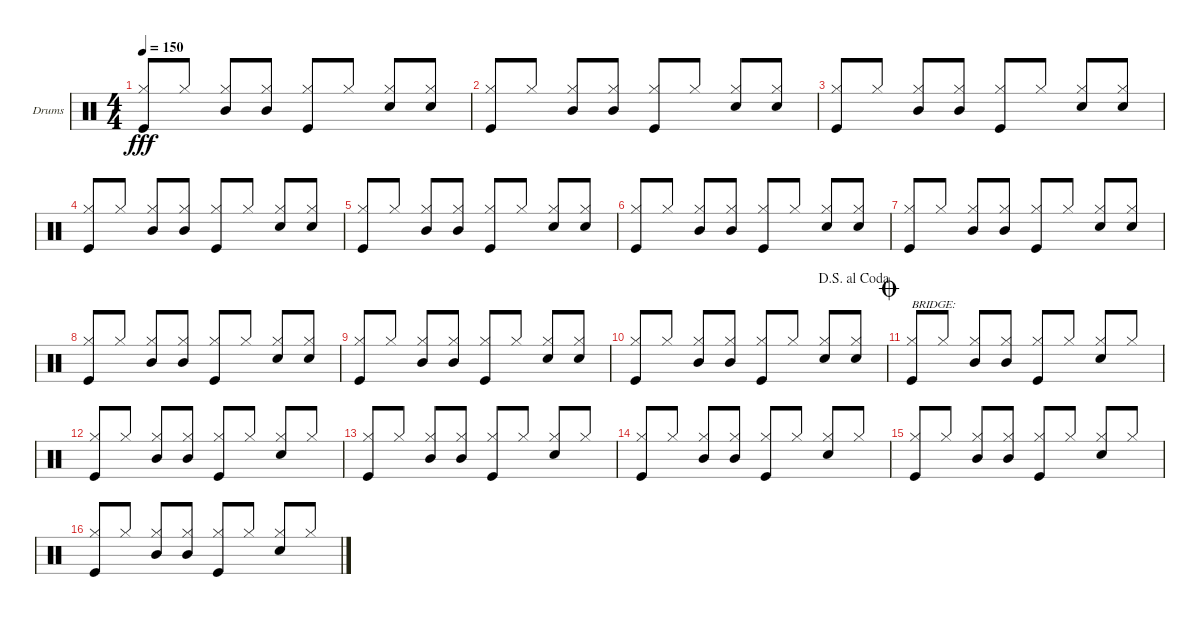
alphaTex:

\defaultSystemsLayout 4
\bracketExtendMode groupsimilarinstruments
\firstSystemTrackNameOrientation horizontal
\otherSystemsTrackNameOrientation horizontal
\track ("Drumkit" "Drums") {instrument percussion}
\staff {score}
\articulation defaults
\ts (4 4)
\tempo 150
\clef neutral
\ks c
("Kick (hit)" "Hi-Hat (closed)").8{dy fff beam invert} "Hi-Hat (closed)".8 ("Mid Tom (hit)" "Hi-Hat (closed)").8{beam invert} ("Mid Tom (hit)" "Hi-Hat (closed)").8 ("Hi-Hat (closed)" "Kick (hit)").8{beam invert} "Hi-Hat (closed)".8 ("Snare (hit) 2" "Hi-Hat (closed)").8{beam invert} ("Snare (hit) 2" "Hi-Hat (closed)").8 |
("Kick (hit)" "Hi-Hat (closed)").8{beam invert} "Hi-Hat (closed)".8 ("Mid Tom (hit)" "Hi-Hat (closed)").8{beam invert} ("Mid Tom (hit)" "Hi-Hat (closed)").8 ("Hi-Hat (closed)" "Kick (hit)").8{beam invert} "Hi-Hat (closed)".8 ("Snare (hit) 2" "Hi-Hat (closed)").8{beam invert} ("Snare (hit) 2" "Hi-Hat (closed)").8 |
("Kick (hit)" "Hi-Hat (closed)").8{beam invert} "Hi-Hat (closed)".8 ("Mid Tom (hit)" "Hi-Hat (closed)").8{beam invert} ("Mid Tom (hit)" "Hi-Hat (closed)").8 ("Hi-Hat (closed)" "Kick (hit)").8{beam invert} "Hi-Hat (closed)".8 ("Snare (hit) 2" "Hi-Hat (closed)").8{beam invert} ("Snare (hit) 2" "Hi-Hat (closed)").8 |
("Kick (hit)" "Hi-Hat (closed)").8{beam invert} "Hi-Hat (closed)".8 ("Mid Tom (hit)" "Hi-Hat (closed)").8{beam invert} ("Mid Tom (hit)" "Hi-Hat (closed)").8 ("Hi-Hat (closed)" "Kick (hit)").8{beam invert} "Hi-Hat (closed)".8 ("Snare (hit) 2" "Hi-Hat (closed)").8{beam invert} ("Snare (hit) 2" "Hi-Hat (closed)").8 |
("Kick (hit)" "Hi-Hat (closed)").8{beam invert} "Hi-Hat (closed)".8 ("Mid Tom (hit)" "Hi-Hat (closed)").8{beam invert} ("Mid Tom (hit)" "Hi-Hat (closed)").8 ("Hi-Hat (closed)" "Kick (hit)").8{beam invert} "Hi-Hat (closed)".8 ("Snare (hit) 2" "Hi-Hat (closed)").8{beam invert} ("Snare (hit) 2" "Hi-Hat (closed)").8 |
("Kick (hit)" "Hi-Hat (closed)").8{beam invert} "Hi-Hat (closed)".8 ("Mid Tom (hit)" "Hi-Hat (closed)").8{beam invert} ("Mid Tom (hit)" "Hi-Hat (closed)").8 ("Hi-Hat (closed)" "Kick (hit)").8{beam invert} "Hi-Hat (closed)".8 ("Snare (hit) 2" "Hi-Hat (closed)").8{beam invert} ("Snare (hit) 2" "Hi-Hat (closed)").8 |
("Kick (hit)" "Hi-Hat (closed)").8{beam invert} "Hi-Hat (closed)".8 ("Mid Tom (hit)" "Hi-Hat (closed)").8{beam invert} ("Mid Tom (hit)" "Hi-Hat (closed)").8 ("Hi-Hat (closed)" "Kick (hit)").8{beam invert} "Hi-Hat (closed)".8 ("Snare (hit) 2" "Hi-Hat (closed)").8{beam invert} ("Snare (hit) 2" "Hi-Hat (closed)").8 |
("Kick (hit)" "Hi-Hat (closed)").8{beam invert} "Hi-Hat (closed)".8 ("Mid Tom (hit)" "Hi-Hat (closed)").8{beam invert} ("Mid Tom (hit)" "Hi-Hat (closed)").8 ("Hi-Hat (closed)" "Kick (hit)").8{beam invert} "Hi-Hat (closed)".8 ("Snare (hit) 2" "Hi-Hat (closed)").8{beam invert} ("Snare (hit) 2" "Hi-Hat (closed)").8 |
("Kick (hit)" "Hi-Hat (closed)").8{beam invert} "Hi-Hat (closed)".8 ("Mid Tom (hit)" "Hi-Hat (closed)").8{beam invert} ("Mid Tom (hit)" "Hi-Hat (closed)").8 ("Hi-Hat (closed)" "Kick (hit)").8{beam invert} "Hi-Hat (closed)".8 ("Snare (hit) 2" "Hi-Hat (closed)").8{beam invert} ("Snare (hit) 2" "Hi-Hat (closed)").8 |
\jump dalsegnoalcoda
("Kick (hit)" "Hi-Hat (closed)").8{beam invert} "Hi-Hat (closed)".8 ("Mid Tom (hit)" "Hi-Hat (closed)").8{beam invert} ("Mid Tom (hit)" "Hi-Hat (closed)").8 ("Hi-Hat (closed)" "Kick (hit)").8{beam invert} "Hi-Hat (closed)".8 ("Snare (hit) 2" "Hi-Hat (closed)").8{beam invert} ("Snare (hit) 2" "Hi-Hat (closed)").8 |
\jump coda
("Kick (hit)" "Hi-Hat (closed)").8{txt "BRIDGE:" beam invert} "Hi-Hat (closed)".8 ("Mid Tom (hit)" "Hi-Hat (closed)").8{beam invert} ("Mid Tom (hit)" "Hi-Hat (closed)").8 ("Hi-Hat (closed)" "Kick (hit)").8{beam invert} "Hi-Hat (closed)".8 ("Snare (hit) 2" "Hi-Hat (closed)").8{beam invert} "Hi-Hat (closed)".8 |
("Kick (hit)" "Hi-Hat (closed)").8{beam invert} "Hi-Hat (closed)".8 ("Mid Tom (hit)" "Hi-Hat (closed)").8{beam invert} ("Mid Tom (hit)" "Hi-Hat (closed)").8 ("Hi-Hat (closed)" "Kick (hit)").8{beam invert} "Hi-Hat (closed)".8 ("Snare (hit) 2" "Hi-Hat (closed)").8{beam invert} "Hi-Hat (closed)".8 |
("Kick (hit)" "Hi-Hat (closed)").8{beam invert} "Hi-Hat (closed)".8 ("Mid Tom (hit)" "Hi-Hat (closed)").8{beam invert} ("Mid Tom (hit)" "Hi-Hat (closed)").8 ("Hi-Hat (closed)" "Kick (hit)").8{beam invert} "Hi-Hat (closed)".8 ("Snare (hit) 2" "Hi-Hat (closed)").8{beam invert} "Hi-Hat (closed)".8 |
("Kick (hit)" "Hi-Hat (closed)").8{beam invert} "Hi-Hat (closed)".8 ("Mid Tom (hit)" "Hi-Hat (closed)").8{beam invert} ("Mid Tom (hit)" "Hi-Hat (closed)").8 ("Hi-Hat (closed)" "Kick (hit)").8{beam invert} "Hi-Hat (closed)".8 ("Snare (hit) 2" "Hi-Hat (closed)").8{beam invert} "Hi-Hat (closed)".8 |
("Kick (hit)" "Hi-Hat (closed)").8{beam invert} "Hi-Hat (closed)".8 ("Mid Tom (hit)" "Hi-Hat (closed)").8{beam invert} ("Mid Tom (hit)" "Hi-Hat (closed)").8 ("Hi-Hat (closed)" "Kick (hit)").8{beam invert} "Hi-Hat (closed)".8 ("Snare (hit) 2" "Hi-Hat (closed)").8{beam invert} "Hi-Hat (closed)".8 |
("Kick (hit)" "Hi-Hat (closed)").8{beam invert} "Hi-Hat (closed)".8 ("Mid Tom (hit)" "Hi-Hat (closed)").8{beam invert} ("Mid Tom (hit)" "Hi-Hat (closed)").8 ("Hi-Hat (closed)" "Kick (hit)").8{beam invert} "Hi-Hat (closed)".8 ("Snare (hit) 2" "Hi-Hat (closed)").8{beam invert} "Hi-Hat (closed)".8
